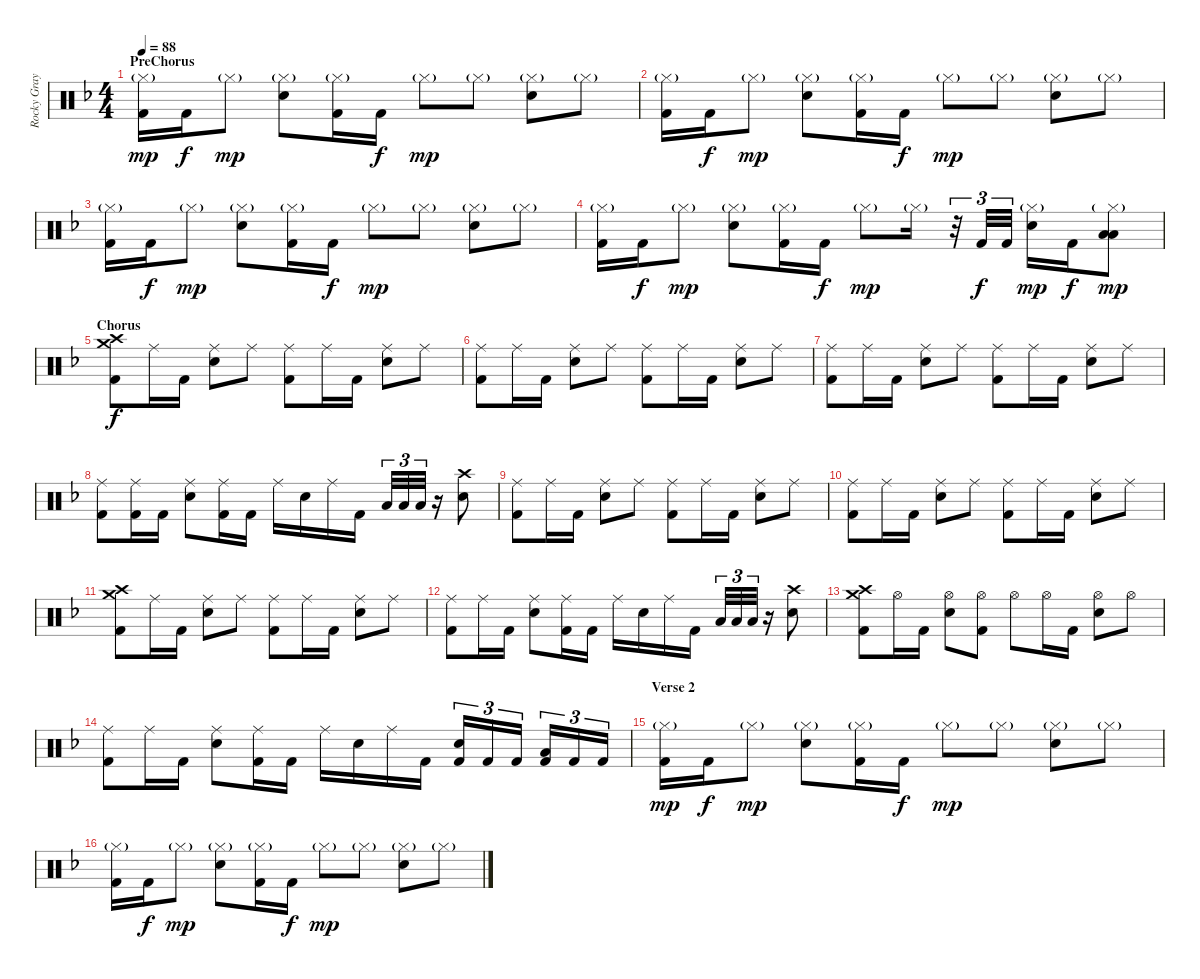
\track ("Rocky Gray" "Rocky Gray") {instrument percussion}
\staff {score}
\articulation defaults
\ts (4 4)
\section ("" "PreChorus")
\tempo 88
\clef neutral
\ks f
("Hi-Hat (closed)"{g} "Kick (hit) 2").16{dy mp} "Kick (hit) 2".16{dy f} "Hi-Hat (closed)"{g}.8{dy mp} ("Hi-Hat (closed)"{g} "Snare (hit) 2").8 ("Hi-Hat (closed)"{g} "Kick (hit) 2").16 "Kick (hit) 2".16{dy f} "Hi-Hat (closed)"{g}.8{dy mp} "Hi-Hat (closed)"{g}.8 ("Hi-Hat (closed)"{g} "Snare (hit) 2").8 "Hi-Hat (closed)"{g}.8 |
("Hi-Hat (closed)"{g} "Kick (hit) 2").16 "Kick (hit) 2".16{dy f} "Hi-Hat (closed)"{g}.8{dy mp} ("Hi-Hat (closed)"{g} "Snare (hit) 2").8 ("Hi-Hat (closed)"{g} "Kick (hit) 2").16 "Kick (hit) 2".16{dy f} "Hi-Hat (closed)"{g}.8{dy mp} "Hi-Hat (closed)"{g}.8 ("Hi-Hat (closed)"{g} "Snare (hit) 2").8 "Hi-Hat (closed)"{g}.8 |
("Hi-Hat (closed)"{g} "Kick (hit) 2").16 "Kick (hit) 2".16{dy f} "Hi-Hat (closed)"{g}.8{dy mp} ("Hi-Hat (closed)"{g} "Snare (hit) 2").8 ("Hi-Hat (closed)"{g} "Kick (hit) 2").16 "Kick (hit) 2".16{dy f} "Hi-Hat (closed)"{g}.8{dy mp} "Hi-Hat (closed)"{g}.8 ("Hi-Hat (closed)"{g} "Snare (hit) 2").8 "Hi-Hat (closed)"{g}.8 |
("Hi-Hat (closed)"{g} "Kick (hit) 2").16 "Kick (hit) 2".16{dy f} "Hi-Hat (closed)"{g}.8{dy mp} ("Hi-Hat (closed)"{g} "Snare (hit) 2").8 ("Hi-Hat (closed)"{g} "Kick (hit) 2").16 "Kick (hit) 2".16{dy f} "Hi-Hat (closed)"{g}.8{dy mp} "Hi-Hat (closed)"{g}.16 r.32{tu (3 2)} "Kick (hit) 2".32{tu (3 2) dy f} "Kick (hit) 2".32{tu (3 2)} ("Hi-Hat (closed)"{g} "Snare (hit) 2").16{dy mp} "Kick (hit) 2".16{dy f} ("Hi-Hat (closed)"{g} "Low Tom (hit)" "Low Floor Tom (hit)").8{dy mp} |
\section ("" "Chorus")
("Crash high (hit)" "Crash medium (hit)" "Kick (hit) 2").8{dy f} "Ride (middle)".16 "Kick (hit) 2".16 ("Ride (middle)" "Snare (hit) 2").8 "Ride (middle)".8 ("Ride (middle)" "Kick (hit) 2").8 "Ride (middle)".16 "Kick (hit) 2".16 ("Ride (middle)" "Snare (hit) 2").8 "Ride (middle)".8 |
("Ride (middle)" "Kick (hit) 2").8 "Ride (middle)".16 "Kick (hit) 2".16 ("Ride (middle)" "Snare (hit) 2").8 "Ride (middle)".8 ("Ride (middle)" "Kick (hit) 2").8 "Ride (middle)".16 "Kick (hit) 2".16 ("Ride (middle)" "Snare (hit) 2").8 "Ride (middle)".8 |
("Ride (middle)" "Kick (hit) 2").8 "Ride (middle)".16 "Kick (hit) 2".16 ("Ride (middle)" "Snare (hit) 2").8 "Ride (middle)".8 ("Ride (middle)" "Kick (hit) 2").8 "Ride (middle)".16 "Kick (hit) 2".16 ("Ride (middle)" "Snare (hit) 2").8 "Ride (middle)".8 |
("Ride (middle)" "Kick (hit) 2").8 ("Ride (middle)" "Kick (hit) 2").16 "Kick (hit) 2".16 ("Ride (middle)" "Snare (hit) 2").8 ("Ride (middle)" "Kick (hit) 2").16 "Kick (hit) 2".16 "Ride (middle)".16 "Snare (hit) 2".16 "Ride (middle)".16 "Kick (hit) 2".16 "Low Floor Tom (hit)".32{tu (3 2)} "Low Floor Tom (hit)".32{tu (3 2)} "Low Floor Tom (hit)".32{tu (3 2)} r.16 ("Crash high (hit)" "Snare (hit) 2").8 |
("Ride (middle)" "Kick (hit) 2").8 "Ride (middle)".16 "Kick (hit) 2".16 ("Ride (middle)" "Snare (hit) 2").8 "Ride (middle)".8 ("Ride (middle)" "Kick (hit) 2").8 "Ride (middle)".16 "Kick (hit) 2".16 ("Ride (middle)" "Snare (hit) 2").8 "Ride (middle)".8 |
("Ride (middle)" "Kick (hit) 2").8 "Ride (middle)".16 "Kick (hit) 2".16 ("Ride (middle)" "Snare (hit) 2").8 "Ride (middle)".8 ("Ride (middle)" "Kick (hit) 2").8 "Ride (middle)".16 "Kick (hit) 2".16 ("Ride (middle)" "Snare (hit) 2").8 "Ride (middle)".8 |
("Crash high (hit)" "Crash medium (hit)" "Kick (hit) 2").8 "Ride (middle)".16 "Kick (hit) 2".16 ("Ride (middle)" "Snare (hit) 2").8 "Ride (middle)".8 ("Ride (middle)" "Kick (hit) 2").8 "Ride (middle)".16 "Kick (hit) 2".16 ("Ride (middle)" "Snare (hit) 2").8 "Ride (middle)".8 |
("Ride (middle)" "Kick (hit) 2").8 "Ride (middle)".16 "Kick (hit) 2".16 ("Ride (middle)" "Snare (hit) 2").8 ("Ride (middle)" "Kick (hit) 2").16 "Kick (hit) 2".16 "Ride (middle)".16 "Snare (hit) 2".16 "Ride (middle)".16 "Kick (hit) 2".16 "Low Floor Tom (hit)".32{tu (3 2)} "Low Floor Tom (hit)".32{tu (3 2)} "Low Floor Tom (hit)".32{tu (3 2)} r.16 ("Crash high (hit)" "Snare (hit) 2").8 |
("Crash high (hit)" "Crash medium (hit)" "Kick (hit) 2").8 "Hi-Hat (open)".16 "Kick (hit) 2".16 ("Hi-Hat (open)" "Snare (hit) 2").8 ("Hi-Hat (open)" "Kick (hit) 2").8 "Hi-Hat (open)".8 "Hi-Hat (open)".16 "Kick (hit) 2".16 ("Hi-Hat (open)" "Snare (hit) 2").8 "Hi-Hat (open)".8 |
("Ride (middle)" "Kick (hit) 2").8 "Ride (middle)".16 "Kick (hit) 2".16 ("Ride (middle)" "Snare (hit) 2").8 ("Ride (middle)" "Kick (hit) 2").16 "Kick (hit) 2".16 "Ride (middle)".16 "Snare (hit) 2".16 "Ride (middle)".16 "Kick (hit) 2".16 ("Snare (hit) 2" "Kick (hit) 2").16{tu (3 2)} "Kick (hit) 2".16{tu (3 2)} "Kick (hit) 2".16{tu (3 2)} ("Low Floor Tom (hit)" "Kick (hit) 2").16{tu (3 2)} "Kick (hit) 2".16{tu (3 2)} "Kick (hit) 2".16{tu (3 2)} |
\section ("" "Verse 2")
("Hi-Hat (closed)"{g} "Kick (hit) 2").16{dy mp} "Kick (hit) 2".16{dy f} "Hi-Hat (closed)"{g}.8{dy mp} ("Hi-Hat (closed)"{g} "Snare (hit) 2").8 ("Hi-Hat (closed)"{g} "Kick (hit) 2").16 "Kick (hit) 2".16{dy f} "Hi-Hat (closed)"{g}.8{dy mp} "Hi-Hat (closed)"{g}.8 ("Hi-Hat (closed)"{g} "Snare (hit) 2").8 "Hi-Hat (closed)"{g}.8 |
("Hi-Hat (closed)"{g} "Kick (hit) 2").16 "Kick (hit) 2".16{dy f} "Hi-Hat (closed)"{g}.8{dy mp} ("Hi-Hat (closed)"{g} "Snare (hit) 2").8 ("Hi-Hat (closed)"{g} "Kick (hit) 2").16 "Kick (hit) 2".16{dy f} "Hi-Hat (closed)"{g}.8{dy mp} "Hi-Hat (closed)"{g}.8 ("Hi-Hat (closed)"{g} "Snare (hit) 2").8 "Hi-Hat (closed)"{g}.8
